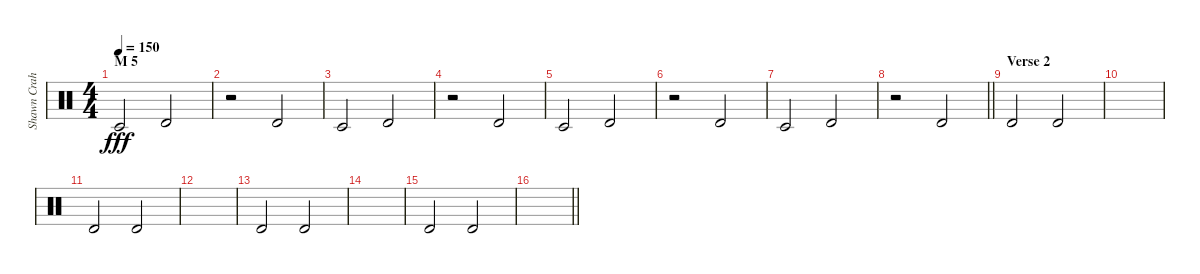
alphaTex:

\track ("Shawn Crahan" "Shawn Crah") {instrument percussion}
\staff {score}
\articulation defaults
\ts (4 4)
\section ("" "M 5")
\tempo 150
\clef neutral
\ks c "Timbale low (hit)".2{dy fff} "Timbale high (hit)".2
|
r.2 "Timbale high (hit)".2 |
"Timbale low (hit)".2 "Timbale high (hit)".2 |
r.2 "Timbale high (hit)".2 |
"Timbale low (hit)".2 "Timbale high (hit)".2 |
r.2 "Timbale high (hit)".2 |
"Timbale low (hit)".2 "Timbale high (hit)".2 |
\barLineRight lightlight
r.2 "Timbale high (hit)".2 |
\section ("" "Verse 2")
"Timbale high (hit)".2 "Timbale high (hit)".2 |
|
"Timbale high (hit)".2 "Timbale high (hit)".2 |
|
"Timbale high (hit)".2 "Timbale high (hit)".2 |
|
"Timbale high (hit)".2 "Timbale high (hit)".2 |
\barLineRight lightlight
